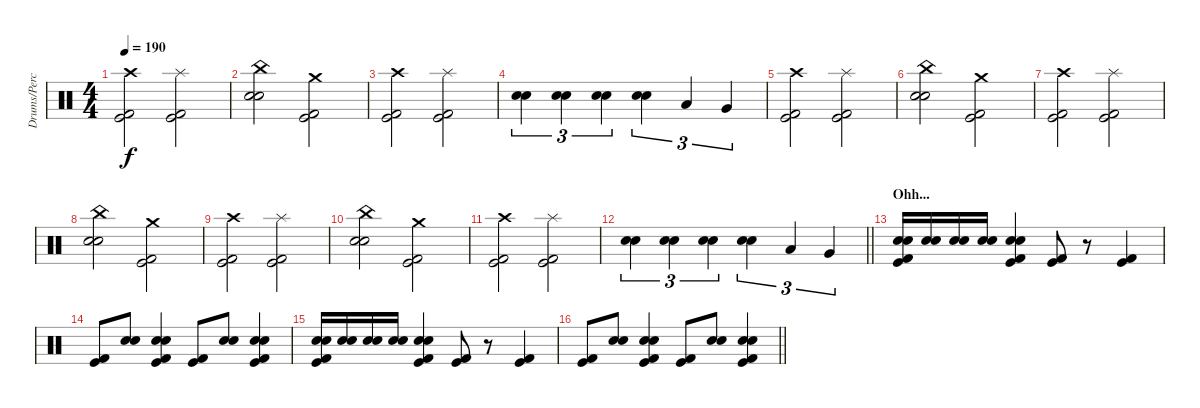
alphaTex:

\track ("Drums/Percussion" "Drums/Perc") {instrument percussion}
\staff {score}
\articulation defaults
\ts (4 4)
\tempo 190
\clef neutral
\ks c
("Crash high (hit)" "Kick (hit)" "Kick (hit) 2").2{dy f} ("Splash (hit)" "Kick (hit)" "Kick (hit) 2").2 |
("China (hit)" "Electric Snare (hit)" "Snare (hit) 2").2 ("Crash medium (hit)" "Kick (hit)" "Kick (hit) 2").2 |
("Crash high (hit)" "Kick (hit)" "Kick (hit) 2").2 ("Splash (hit)" "Kick (hit)" "Kick (hit) 2").2 |
("Electric Snare (hit)" "Snare (hit) 2").4{tu (3 2)} ("Electric Snare (hit)" "Snare (hit) 2").4{tu (3 2)} ("Electric Snare (hit)" "Snare (hit) 2").4{tu (3 2)} ("Electric Snare (hit)" "Snare (hit) 2").4{tu (3 2)} "Low Tom (hit)".4{tu (3 2)} "Very Low Tom (hit)".4{tu (3 2)} |
("Crash high (hit)" "Kick (hit)" "Kick (hit) 2").2 ("Splash (hit)" "Kick (hit)" "Kick (hit) 2").2 |
("China (hit)" "Electric Snare (hit)" "Snare (hit) 2").2 ("Crash medium (hit)" "Kick (hit)" "Kick (hit) 2").2 |
("Crash high (hit)" "Kick (hit)" "Kick (hit) 2").2 ("Splash (hit)" "Kick (hit)" "Kick (hit) 2").2 |
("China (hit)" "Electric Snare (hit)" "Snare (hit) 2").2 ("Crash medium (hit)" "Kick (hit)" "Kick (hit) 2").2 |
("Crash high (hit)" "Kick (hit)" "Kick (hit) 2").2 ("Splash (hit)" "Kick (hit)" "Kick (hit) 2").2 |
("China (hit)" "Electric Snare (hit)" "Snare (hit) 2").2 ("Crash medium (hit)" "Kick (hit)" "Kick (hit) 2").2 |
("Crash high (hit)" "Kick (hit)" "Kick (hit) 2").2 ("Splash (hit)" "Kick (hit)" "Kick (hit) 2").2 |
\barLineRight lightlight
("Electric Snare (hit)" "Snare (hit) 2").4{tu (3 2)} ("Electric Snare (hit)" "Snare (hit) 2").4{tu (3 2)} ("Electric Snare (hit)" "Snare (hit) 2").4{tu (3 2)} ("Electric Snare (hit)" "Snare (hit) 2").4{tu (3 2)} "Low Tom (hit)".4{tu (3 2)} "Very Low Tom (hit)".4{tu (3 2)} |
\section ("" "Ohh...")
("Electric Snare (hit)" "Snare (hit) 2" "Kick (hit)" "Kick (hit) 2").16 ("Electric Snare (hit)" "Snare (hit) 2").16 ("Electric Snare (hit)" "Snare (hit) 2").16 ("Electric Snare (hit)" "Snare (hit) 2").16 ("Electric Snare (hit)" "Snare (hit) 2" "Kick (hit)" "Kick (hit) 2").4 ("Kick (hit)" "Kick (hit) 2").8 r.8 ("Kick (hit)" "Kick (hit) 2").4 |
("Kick (hit)" "Kick (hit) 2").8 ("Electric Snare (hit)" "Snare (hit) 2").8 ("Electric Snare (hit)" "Snare (hit) 2" "Kick (hit)" "Kick (hit) 2").4 ("Kick (hit)" "Kick (hit) 2").8 ("Electric Snare (hit)" "Snare (hit) 2").8 ("Electric Snare (hit)" "Snare (hit) 2" "Kick (hit)" "Kick (hit) 2").4 |
("Electric Snare (hit)" "Snare (hit) 2" "Kick (hit)" "Kick (hit) 2").16 ("Electric Snare (hit)" "Snare (hit) 2").16 ("Electric Snare (hit)" "Snare (hit) 2").16 ("Electric Snare (hit)" "Snare (hit) 2").16 ("Electric Snare (hit)" "Snare (hit) 2" "Kick (hit)" "Kick (hit) 2").4 ("Kick (hit)" "Kick (hit) 2").8 r.8 ("Kick (hit)" "Kick (hit) 2").4 |
\barLineRight lightlight
("Kick (hit)" "Kick (hit) 2").8 ("Electric Snare (hit)" "Snare (hit) 2").8 ("Electric Snare (hit)" "Snare (hit) 2" "Kick (hit)" "Kick (hit) 2").4 ("Kick (hit)" "Kick (hit) 2").8 ("Electric Snare (hit)" "Snare (hit) 2").8 ("Electric Snare (hit)" "Snare (hit) 2" "Kick (hit)" "Kick (hit) 2").4
